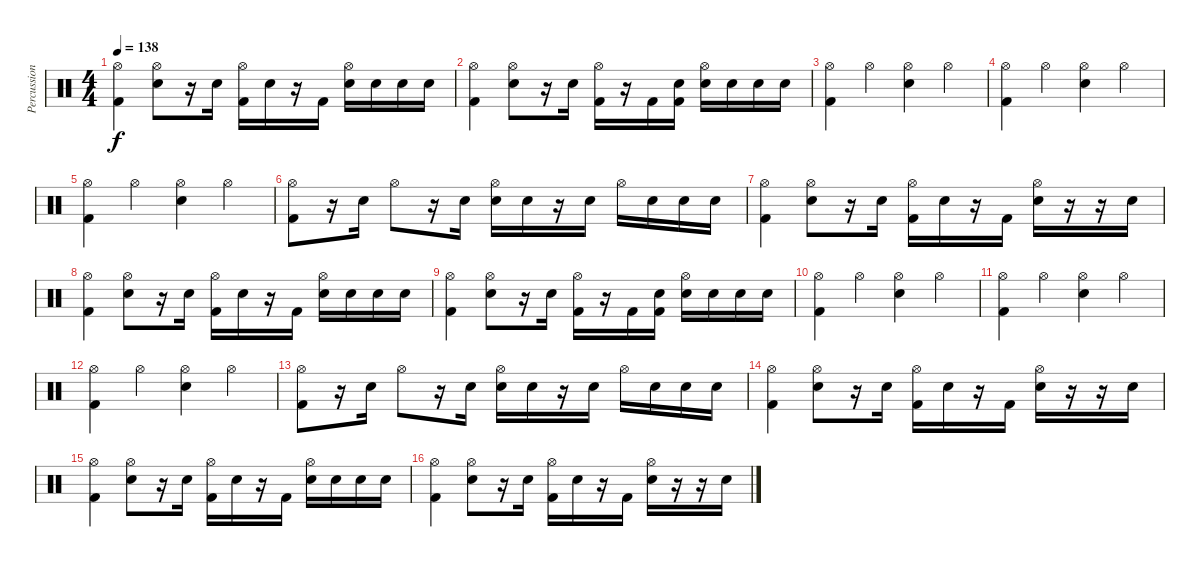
\track ("Percussion" "Percussion") {instrument percussion}
\staff {score}
\articulation defaults
\ts (4 4)
\tempo 138
\clef neutral
\ks c
("Hi-Hat (open)" "Kick (hit) 2").4{dy f} ("Hi-Hat (open)" "Snare (hit) 2").8 r.16 "Snare (hit) 2".16 ("Hi-Hat (open)" "Kick (hit) 2").16 "Snare (hit) 2".16 r.16 "Kick (hit) 2".16 ("Hi-Hat (open)" "Snare (hit) 2").16 "Snare (hit) 2".16 "Snare (hit) 2".16 "Snare (hit) 2".16 |
("Hi-Hat (open)" "Kick (hit) 2").4 ("Hi-Hat (open)" "Snare (hit) 2").8 r.16 "Snare (hit) 2".16 ("Hi-Hat (open)" "Kick (hit) 2").16 r.16 "Kick (hit) 2".16 ("Snare (hit) 2" "Kick (hit) 2").16 ("Hi-Hat (open)" "Snare (hit) 2").16 "Snare (hit) 2".16 "Snare (hit) 2".16 "Snare (hit) 2".16 |
("Hi-Hat (open)" "Kick (hit) 2").4 "Hi-Hat (open)".4 ("Hi-Hat (open)" "Snare (hit) 2").4 "Hi-Hat (open)".4 |
("Hi-Hat (open)" "Kick (hit) 2").4 "Hi-Hat (open)".4 ("Hi-Hat (open)" "Snare (hit) 2").4 "Hi-Hat (open)".4 |
("Hi-Hat (open)" "Kick (hit) 2").4 "Hi-Hat (open)".4 ("Hi-Hat (open)" "Snare (hit) 2").4 "Hi-Hat (open)".4 |
("Hi-Hat (open)" "Kick (hit) 2").8 r.16 "Snare (hit) 2".16 "Hi-Hat (open)".8 r.16 "Snare (hit) 2".16 ("Hi-Hat (open)" "Snare (hit) 2").16 "Snare (hit) 2".16 r.16 "Snare (hit) 2".16 "Hi-Hat (open)".16 "Snare (hit) 2".16 "Snare (hit) 2".16 "Snare (hit) 2".16 |
("Hi-Hat (open)" "Kick (hit) 2").4 ("Hi-Hat (open)" "Snare (hit) 2").8 r.16 "Snare (hit) 2".16 ("Hi-Hat (open)" "Kick (hit) 2").16 "Snare (hit) 2".16 r.16 "Kick (hit) 2".16 ("Hi-Hat (open)" "Snare (hit) 2").16 r.16 r.16 "Snare (hit) 2".16 |
("Hi-Hat (open)" "Kick (hit) 2").4 ("Hi-Hat (open)" "Snare (hit) 2").8 r.16 "Snare (hit) 2".16 ("Hi-Hat (open)" "Kick (hit) 2").16 "Snare (hit) 2".16 r.16 "Kick (hit) 2".16 ("Hi-Hat (open)" "Snare (hit) 2").16 "Snare (hit) 2".16 "Snare (hit) 2".16 "Snare (hit) 2".16 |
("Hi-Hat (open)" "Kick (hit) 2").4 ("Hi-Hat (open)" "Snare (hit) 2").8 r.16 "Snare (hit) 2".16 ("Hi-Hat (open)" "Kick (hit) 2").16 r.16 "Kick (hit) 2".16 ("Snare (hit) 2" "Kick (hit) 2").16 ("Hi-Hat (open)" "Snare (hit) 2").16 "Snare (hit) 2".16 "Snare (hit) 2".16 "Snare (hit) 2".16 |
("Hi-Hat (open)" "Kick (hit) 2").4 "Hi-Hat (open)".4 ("Hi-Hat (open)" "Snare (hit) 2").4 "Hi-Hat (open)".4 |
("Hi-Hat (open)" "Kick (hit) 2").4 "Hi-Hat (open)".4 ("Hi-Hat (open)" "Snare (hit) 2").4 "Hi-Hat (open)".4 |
("Hi-Hat (open)" "Kick (hit) 2").4 "Hi-Hat (open)".4 ("Hi-Hat (open)" "Snare (hit) 2").4 "Hi-Hat (open)".4 |
("Hi-Hat (open)" "Kick (hit) 2").8 r.16 "Snare (hit) 2".16 "Hi-Hat (open)".8 r.16 "Snare (hit) 2".16 ("Hi-Hat (open)" "Snare (hit) 2").16 "Snare (hit) 2".16 r.16 "Snare (hit) 2".16 "Hi-Hat (open)".16 "Snare (hit) 2".16 "Snare (hit) 2".16 "Snare (hit) 2".16 |
("Hi-Hat (open)" "Kick (hit) 2").4 ("Hi-Hat (open)" "Snare (hit) 2").8 r.16 "Snare (hit) 2".16 ("Hi-Hat (open)" "Kick (hit) 2").16 "Snare (hit) 2".16 r.16 "Kick (hit) 2".16 ("Hi-Hat (open)" "Snare (hit) 2").16 r.16 r.16 "Snare (hit) 2".16 |
("Hi-Hat (open)" "Kick (hit) 2").4 ("Hi-Hat (open)" "Snare (hit) 2").8 r.16 "Snare (hit) 2".16 ("Hi-Hat (open)" "Kick (hit) 2").16 "Snare (hit) 2".16 r.16 "Kick (hit) 2".16 ("Hi-Hat (open)" "Snare (hit) 2").16 "Snare (hit) 2".16 "Snare (hit) 2".16 "Snare (hit) 2".16 |
("Hi-Hat (open)" "Kick (hit) 2").4 ("Hi-Hat (open)" "Snare (hit) 2").8 r.16 "Snare (hit) 2".16 ("Hi-Hat (open)" "Kick (hit) 2").16 "Snare (hit) 2".16 r.16 "Kick (hit) 2".16 ("Hi-Hat (open)" "Snare (hit) 2").16 r.16 r.16 "Snare (hit) 2".16
